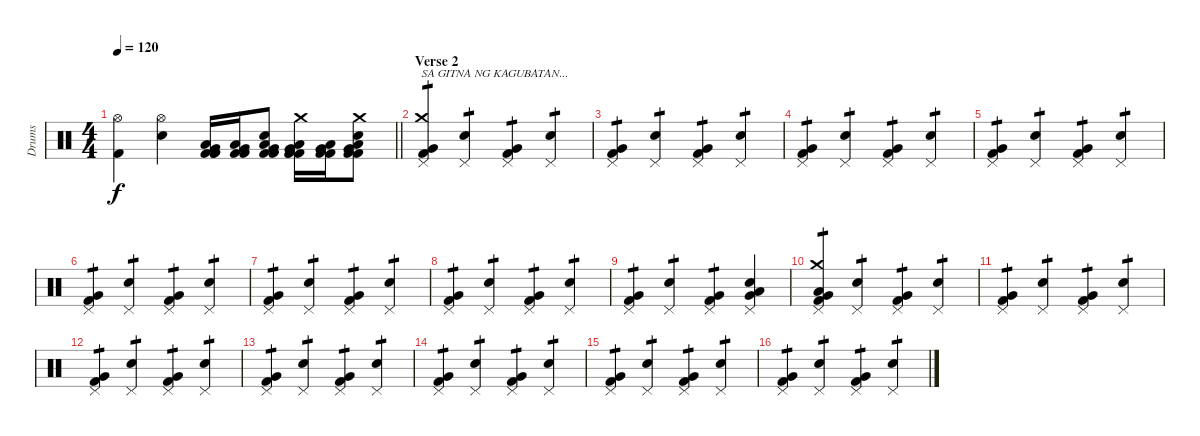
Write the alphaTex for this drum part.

\track ("Drums" "Drums") {instrument percussion}
\staff {score}
\articulation defaults
\ts (4 4)
\tempo 120
\clef neutral
\barLineRight lightlight
\ks c
("Hi-Hat (open)" "Kick (hit) 2").4{dy f} ("Hi-Hat (open)" "Electric Snare (hit)").4 ("Low Tom (hit)" "Kick (hit) 2" "Very Low Tom (hit)" "Kick (hit) 2" "Kick (hit) 2").16 ("Low Tom (hit)" "Kick (hit) 2" "Very Low Tom (hit)" "Kick (hit) 2").16 ("Low Tom (hit)" "Kick (hit) 2" "Very Low Tom (hit)" "Kick (hit) 2" "Electric Snare (hit)").8 ("Low Tom (hit)" "Kick (hit) 2" "Very Low Tom (hit)" "Kick (hit) 2" "Crash medium (hit)" "Kick (hit) 2").16 ("Low Tom (hit)" "Kick (hit) 2" "Very Low Tom (hit)" "Kick (hit) 2").16 ("Low Tom (hit)" "Kick (hit) 2" "Very Low Tom (hit)" "Kick (hit) 2" "Crash medium (hit)" "Electric Snare (hit)").8 |
\section ("" "Verse 2")
("Pedal Hi-Hat (hit)" "Crash medium (hit)" "Kick (hit) 2" "Very Low Tom (hit)").4{txt "SA GITNA NG KAGUBATAN..." tp 1} ("Pedal Hi-Hat (hit)" "Electric Snare (hit)").4{tp 1} ("Pedal Hi-Hat (hit)" "Kick (hit) 2" "Very Low Tom (hit)").4{tp 1} ("Pedal Hi-Hat (hit)" "Electric Snare (hit)").4{tp 1} |
("Pedal Hi-Hat (hit)" "Kick (hit) 2" "Very Low Tom (hit)").4{tp 1} ("Pedal Hi-Hat (hit)" "Electric Snare (hit)").4{tp 1} ("Pedal Hi-Hat (hit)" "Kick (hit) 2" "Very Low Tom (hit)").4{tp 1} ("Pedal Hi-Hat (hit)" "Electric Snare (hit)").4{tp 1} |
("Pedal Hi-Hat (hit)" "Kick (hit) 2" "Very Low Tom (hit)").4{tp 1} ("Pedal Hi-Hat (hit)" "Electric Snare (hit)").4{tp 1} ("Pedal Hi-Hat (hit)" "Kick (hit) 2" "Very Low Tom (hit)").4{tp 1} ("Pedal Hi-Hat (hit)" "Electric Snare (hit)").4{tp 1} |
("Pedal Hi-Hat (hit)" "Kick (hit) 2" "Very Low Tom (hit)").4{tp 1} ("Pedal Hi-Hat (hit)" "Electric Snare (hit)").4{tp 1} ("Pedal Hi-Hat (hit)" "Kick (hit) 2" "Very Low Tom (hit)").4{tp 1} ("Pedal Hi-Hat (hit)" "Electric Snare (hit)").4{tp 1} |
("Pedal Hi-Hat (hit)" "Kick (hit) 2" "Very Low Tom (hit)").4{tp 1} ("Pedal Hi-Hat (hit)" "Electric Snare (hit)").4{tp 1} ("Pedal Hi-Hat (hit)" "Kick (hit) 2" "Very Low Tom (hit)").4{tp 1} ("Pedal Hi-Hat (hit)" "Electric Snare (hit)").4{tp 1} |
("Pedal Hi-Hat (hit)" "Kick (hit) 2" "Very Low Tom (hit)").4{tp 1} ("Pedal Hi-Hat (hit)" "Electric Snare (hit)").4{tp 1} ("Pedal Hi-Hat (hit)" "Kick (hit) 2" "Very Low Tom (hit)").4{tp 1} ("Pedal Hi-Hat (hit)" "Electric Snare (hit)").4{tp 1} |
("Pedal Hi-Hat (hit)" "Kick (hit) 2" "Very Low Tom (hit)").4{tp 1} ("Pedal Hi-Hat (hit)" "Electric Snare (hit)").4{tp 1} ("Pedal Hi-Hat (hit)" "Kick (hit) 2" "Very Low Tom (hit)").4{tp 1} ("Pedal Hi-Hat (hit)" "Electric Snare (hit)").4{tp 1} |
("Pedal Hi-Hat (hit)" "Kick (hit) 2" "Very Low Tom (hit)").4{tp 1} ("Pedal Hi-Hat (hit)" "Electric Snare (hit)").4{tp 1} ("Pedal Hi-Hat (hit)" "Kick (hit) 2" "Very Low Tom (hit)").4{tp 1} ("Pedal Hi-Hat (hit)" "Electric Snare (hit)" "Low Tom (hit)" "Very Low Tom (hit)").4 |
("Pedal Hi-Hat (hit)" "Crash medium (hit)" "Kick (hit) 2" "Very Low Tom (hit)" "Low Tom (hit)").4{tp 1} ("Pedal Hi-Hat (hit)" "Electric Snare (hit)").4{tp 1} ("Pedal Hi-Hat (hit)" "Kick (hit) 2" "Very Low Tom (hit)").4{tp 1} ("Pedal Hi-Hat (hit)" "Electric Snare (hit)").4{tp 1} |
("Pedal Hi-Hat (hit)" "Kick (hit) 2" "Very Low Tom (hit)").4{tp 1} ("Pedal Hi-Hat (hit)" "Electric Snare (hit)").4{tp 1} ("Pedal Hi-Hat (hit)" "Kick (hit) 2" "Very Low Tom (hit)").4{tp 1} ("Pedal Hi-Hat (hit)" "Electric Snare (hit)").4{tp 1} |
("Pedal Hi-Hat (hit)" "Kick (hit) 2" "Very Low Tom (hit)").4{tp 1} ("Pedal Hi-Hat (hit)" "Electric Snare (hit)").4{tp 1} ("Pedal Hi-Hat (hit)" "Kick (hit) 2" "Very Low Tom (hit)").4{tp 1} ("Pedal Hi-Hat (hit)" "Electric Snare (hit)").4{tp 1} |
("Pedal Hi-Hat (hit)" "Kick (hit) 2" "Very Low Tom (hit)").4{tp 1} ("Pedal Hi-Hat (hit)" "Electric Snare (hit)").4{tp 1} ("Pedal Hi-Hat (hit)" "Kick (hit) 2" "Very Low Tom (hit)").4{tp 1} ("Pedal Hi-Hat (hit)" "Electric Snare (hit)").4{tp 1} |
("Pedal Hi-Hat (hit)" "Kick (hit) 2" "Very Low Tom (hit)").4{tp 1} ("Pedal Hi-Hat (hit)" "Electric Snare (hit)").4{tp 1} ("Pedal Hi-Hat (hit)" "Kick (hit) 2" "Very Low Tom (hit)").4{tp 1} ("Pedal Hi-Hat (hit)" "Electric Snare (hit)").4{tp 1} |
("Pedal Hi-Hat (hit)" "Kick (hit) 2" "Very Low Tom (hit)").4{tp 1} ("Pedal Hi-Hat (hit)" "Electric Snare (hit)").4{tp 1} ("Pedal Hi-Hat (hit)" "Kick (hit) 2" "Very Low Tom (hit)").4{tp 1} ("Pedal Hi-Hat (hit)" "Electric Snare (hit)").4{tp 1} |
("Pedal Hi-Hat (hit)" "Kick (hit) 2" "Very Low Tom (hit)").4{tp 1} ("Pedal Hi-Hat (hit)" "Electric Snare (hit)").4{tp 1} ("Pedal Hi-Hat (hit)" "Kick (hit) 2" "Very Low Tom (hit)").4{tp 1} ("Pedal Hi-Hat (hit)" "Electric Snare (hit)").4{tp 1}
